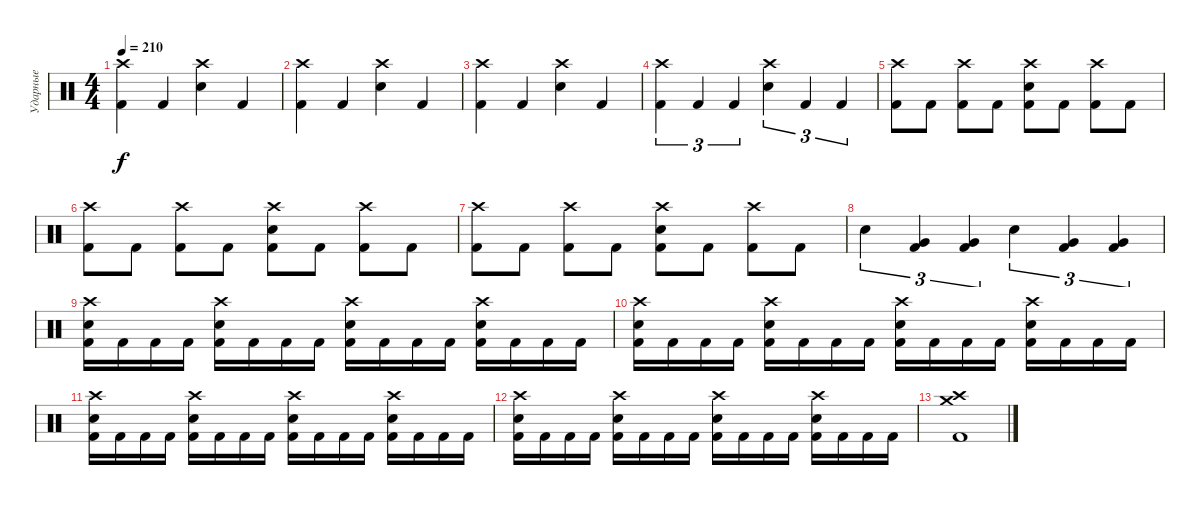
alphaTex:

\track ("Ударные" "Ударные") {instrument percussion}
\staff {score}
\articulation defaults
\ts (4 4)
\tempo 210
\clef neutral
\ks c
("Crash high (hit)" "Kick (hit) 2").4{dy f} "Kick (hit) 2".4 ("Crash high (hit)" "Electric Snare (hit)").4 "Kick (hit) 2".4 |
("Crash high (hit)" "Kick (hit) 2").4 "Kick (hit) 2".4 ("Crash high (hit)" "Electric Snare (hit)").4 "Kick (hit) 2".4 |
("Crash high (hit)" "Kick (hit) 2").4 "Kick (hit) 2".4 ("Crash high (hit)" "Electric Snare (hit)").4 "Kick (hit) 2".4 |
("Crash high (hit)" "Kick (hit) 2").4{tu (3 2)} "Kick (hit) 2".4{tu (3 2)} "Kick (hit) 2".4{tu (3 2)} ("Crash high (hit)" "Electric Snare (hit)").4{tu (3 2)} "Kick (hit) 2".4{tu (3 2)} "Kick (hit) 2".4{tu (3 2)} |
("Crash high (hit)" "Kick (hit) 2").8 "Kick (hit) 2".8 ("Crash high (hit)" "Kick (hit) 2").8 "Kick (hit) 2".8 ("Crash high (hit)" "Electric Snare (hit)" "Kick (hit) 2").8 "Kick (hit) 2".8 ("Crash high (hit)" "Kick (hit) 2").8 "Kick (hit) 2".8 |
("Crash high (hit)" "Kick (hit) 2").8 "Kick (hit) 2".8 ("Crash high (hit)" "Kick (hit) 2").8 "Kick (hit) 2".8 ("Crash high (hit)" "Electric Snare (hit)" "Kick (hit) 2").8 "Kick (hit) 2".8 ("Crash high (hit)" "Kick (hit) 2").8 "Kick (hit) 2".8 |
("Crash high (hit)" "Kick (hit) 2").8 "Kick (hit) 2".8 ("Crash high (hit)" "Kick (hit) 2").8 "Kick (hit) 2".8 ("Crash high (hit)" "Electric Snare (hit)" "Kick (hit) 2").8 "Kick (hit) 2".8 ("Crash high (hit)" "Kick (hit) 2").8 "Kick (hit) 2".8 |
"Electric Snare (hit)".4{tu (3 2)} ("Very Low Tom (hit)" "Kick (hit) 2").4{tu (3 2)} ("Very Low Tom (hit)" "Kick (hit) 2").4{tu (3 2)} "Electric Snare (hit)".4{tu (3 2)} ("Very Low Tom (hit)" "Kick (hit) 2").4{tu (3 2)} ("Very Low Tom (hit)" "Kick (hit) 2").4{tu (3 2)} |
("Crash high (hit)" "Electric Snare (hit)" "Kick (hit) 2").16 "Kick (hit) 2".16 "Kick (hit) 2".16 "Kick (hit) 2".16 ("Crash high (hit)" "Electric Snare (hit)" "Kick (hit) 2").16 "Kick (hit) 2".16 "Kick (hit) 2".16 "Kick (hit) 2".16 ("Crash high (hit)" "Electric Snare (hit)" "Kick (hit) 2").16 "Kick (hit) 2".16 "Kick (hit) 2".16 "Kick (hit) 2".16 ("Crash high (hit)" "Electric Snare (hit)" "Kick (hit) 2").16 "Kick (hit) 2".16 "Kick (hit) 2".16 "Kick (hit) 2".16 |
("Crash high (hit)" "Electric Snare (hit)" "Kick (hit) 2").16 "Kick (hit) 2".16 "Kick (hit) 2".16 "Kick (hit) 2".16 ("Crash high (hit)" "Electric Snare (hit)" "Kick (hit) 2").16 "Kick (hit) 2".16 "Kick (hit) 2".16 "Kick (hit) 2".16 ("Crash high (hit)" "Electric Snare (hit)" "Kick (hit) 2").16 "Kick (hit) 2".16 "Kick (hit) 2".16 "Kick (hit) 2".16 ("Crash high (hit)" "Electric Snare (hit)" "Kick (hit) 2").16 "Kick (hit) 2".16 "Kick (hit) 2".16 "Kick (hit) 2".16 |
("Crash high (hit)" "Electric Snare (hit)" "Kick (hit) 2").16 "Kick (hit) 2".16 "Kick (hit) 2".16 "Kick (hit) 2".16 ("Crash high (hit)" "Electric Snare (hit)" "Kick (hit) 2").16 "Kick (hit) 2".16 "Kick (hit) 2".16 "Kick (hit) 2".16 ("Crash high (hit)" "Electric Snare (hit)" "Kick (hit) 2").16 "Kick (hit) 2".16 "Kick (hit) 2".16 "Kick (hit) 2".16 ("Crash high (hit)" "Electric Snare (hit)" "Kick (hit) 2").16 "Kick (hit) 2".16 "Kick (hit) 2".16 "Kick (hit) 2".16 |
("Crash high (hit)" "Electric Snare (hit)" "Kick (hit) 2").16 "Kick (hit) 2".16 "Kick (hit) 2".16 "Kick (hit) 2".16 ("Crash high (hit)" "Electric Snare (hit)" "Kick (hit) 2").16 "Kick (hit) 2".16 "Kick (hit) 2".16 "Kick (hit) 2".16 ("Crash high (hit)" "Electric Snare (hit)" "Kick (hit) 2").16 "Kick (hit) 2".16 "Kick (hit) 2".16 "Kick (hit) 2".16 ("Crash high (hit)" "Electric Snare (hit)" "Kick (hit) 2").16 "Kick (hit) 2".16 "Kick (hit) 2".16 "Kick (hit) 2".16 |
("Crash medium (hit)" "Crash high (hit)" "Kick (hit) 2").1
